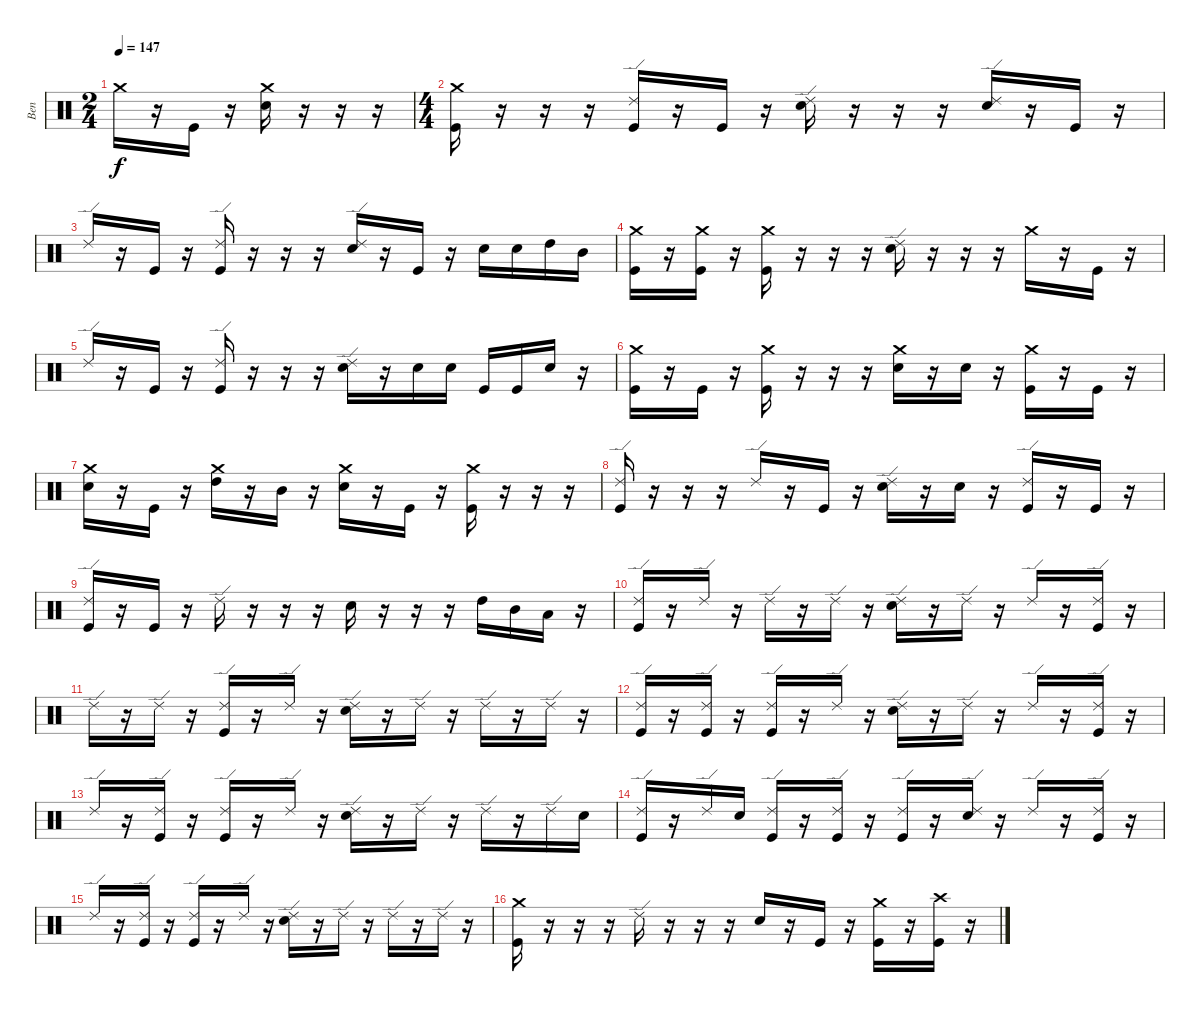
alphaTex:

\track ("Ben" "Ben") {instrument percussion}
\staff {score}
\articulation defaults
\ts (2 4)
\tempo 147
\clef neutral
\ks c "Crash medium (hit)".16{dy f}
r.16 "Kick (hit)".16 r.16 ("Crash medium (hit)" "Electric Snare (hit)").16 r.16 r.16 r.16 |
\ts (4 4)
("Crash medium (hit)" "Kick (hit)").16 r.16 r.16 r.16 ("Ride (edge) 2" "Kick (hit)").16 r.16 "Kick (hit)".16 r.16 ("Ride (edge) 2" "Electric Snare (hit)").16 r.16 r.16 r.16 ("Ride (edge) 2" "Electric Snare (hit)").16 r.16 "Kick (hit)".16 r.16 |
"Ride (edge) 2".16 r.16 "Kick (hit)".16 r.16 ("Ride (edge) 2" "Kick (hit)").16 r.16 r.16 r.16 ("Ride (edge) 2" "Electric Snare (hit)").16 r.16 "Kick (hit)".16 r.16 "Electric Snare (hit)".16 "Electric Snare (hit)".16 "High Tom (hit)".16 "Mid Tom (hit)".16 |
("Crash medium (hit)" "Kick (hit)").16 r.16 ("Crash medium (hit)" "Kick (hit)").16 r.16 ("Crash medium (hit)" "Kick (hit)").16 r.16 r.16 r.16 ("Ride (edge) 2" "Electric Snare (hit)").16 r.16 r.16 r.16 "Crash medium (hit)".16 r.16 "Kick (hit)".16 r.16 |
"Ride (edge) 2".16 r.16 "Kick (hit)".16 r.16 ("Ride (edge) 2" "Kick (hit)").16 r.16 r.16 r.16 ("Ride (edge) 2" "Electric Snare (hit)").16 r.16 "Electric Snare (hit)".16 "Electric Snare (hit)".16 "Kick (hit)".16 "Kick (hit)".16 "Electric Snare (hit)".16 r.16 |
("Crash medium (hit)" "Kick (hit)").16 r.16 "Kick (hit)".16 r.16 ("Crash medium (hit)" "Kick (hit)").16 r.16 r.16 r.16 ("Crash medium (hit)" "Electric Snare (hit)").16 r.16 "Electric Snare (hit)".16 r.16 ("Crash medium (hit)" "Kick (hit)").16 r.16 "Kick (hit)".16 r.16 |
("Crash medium (hit)" "Electric Snare (hit)").16 r.16 "Kick (hit)".16 r.16 ("Crash medium (hit)" "High Tom (hit)").16 r.16 "Mid Tom (hit)".16 r.16 ("Crash medium (hit)" "Electric Snare (hit)").16 r.16 "Kick (hit)".16 r.16 ("Crash medium (hit)" "Kick (hit)").16 r.16 r.16 r.16 |
("Ride (edge) 2" "Kick (hit)").16 r.16 r.16 r.16 "Ride (edge) 2".16 r.16 "Kick (hit)".16 r.16 ("Ride (edge) 2" "Electric Snare (hit)").16 r.16 "Electric Snare (hit)".16 r.16 ("Ride (edge) 2" "Kick (hit)").16 r.16 "Kick (hit)".16 r.16 |
("Ride (edge) 2" "Kick (hit)").16 r.16 "Kick (hit)".16 r.16 "Ride (edge) 2".16 r.16 r.16 r.16 "Electric Snare (hit)".16 r.16 r.16 r.16 "High Tom (hit)".16 "Mid Tom (hit)".16 "Low Tom (hit)".16 r.16 |
("Ride (edge) 2" "Kick (hit)").16 r.16 "Ride (edge) 2".16 r.16 "Ride (edge) 2".16 r.16 "Ride (edge) 2".16 r.16 ("Ride (edge) 2" "Electric Snare (hit)").16 r.16 "Ride (edge) 2".16 r.16 "Ride (edge) 2".16 r.16 ("Ride (edge) 2" "Kick (hit)").16 r.16 |
"Ride (edge) 2".16 r.16 "Ride (edge) 2".16 r.16 ("Ride (edge) 2" "Kick (hit)").16 r.16 "Ride (edge) 2".16 r.16 ("Ride (edge) 2" "Electric Snare (hit)").16 r.16 "Ride (edge) 2".16 r.16 "Ride (edge) 2".16 r.16 "Ride (edge) 2".16 r.16 |
("Ride (edge) 2" "Kick (hit)").16 r.16 ("Ride (edge) 2" "Kick (hit)").16 r.16 ("Ride (edge) 2" "Kick (hit)").16 r.16 "Ride (edge) 2".16 r.16 ("Ride (edge) 2" "Electric Snare (hit)").16 r.16 "Ride (edge) 2".16 r.16 "Ride (edge) 2".16 r.16 ("Ride (edge) 2" "Kick (hit)").16 r.16 |
"Ride (edge) 2".16 r.16 ("Ride (edge) 2" "Kick (hit)").16 r.16 ("Ride (edge) 2" "Kick (hit)").16 r.16 "Ride (edge) 2".16 r.16 ("Ride (edge) 2" "Electric Snare (hit)").16 r.16 "Ride (edge) 2".16 r.16 "Ride (edge) 2".16 r.16 "Ride (edge) 2".16 "Electric Snare (hit)".16 |
("Ride (edge) 2" "Kick (hit)").16 r.16 "Ride (edge) 2".16 "Electric Snare (hit)".16 ("Ride (edge) 2" "Kick (hit)").16 r.16 ("Ride (edge) 2" "Kick (hit)").16 r.16 ("Ride (edge) 2" "Kick (hit)").16 r.16 ("Ride (edge) 2" "Electric Snare (hit)").16 r.16 "Ride (edge) 2".16 r.16 ("Ride (edge) 2" "Kick (hit)").16 r.16 |
"Ride (edge) 2".16 r.16 ("Ride (edge) 2" "Kick (hit)").16 r.16 ("Ride (edge) 2" "Kick (hit)").16 r.16 "Ride (edge) 2".16 r.16 ("Ride (edge) 2" "Electric Snare (hit)").16 r.16 "Ride (edge) 2".16 r.16 "Ride (edge) 2".16 r.16 "Ride (edge) 2".16 r.16 |
("Crash medium (hit)" "Kick (hit)").16 r.16 r.16 r.16 "Ride (edge) 2".16 r.16 r.16 r.16 "Electric Snare (hit)".16 r.16 "Kick (hit)".16 r.16 ("Crash medium (hit)" "Kick (hit)").16 r.16 ("Crash high (hit)" "Kick (hit)").16 r.16
